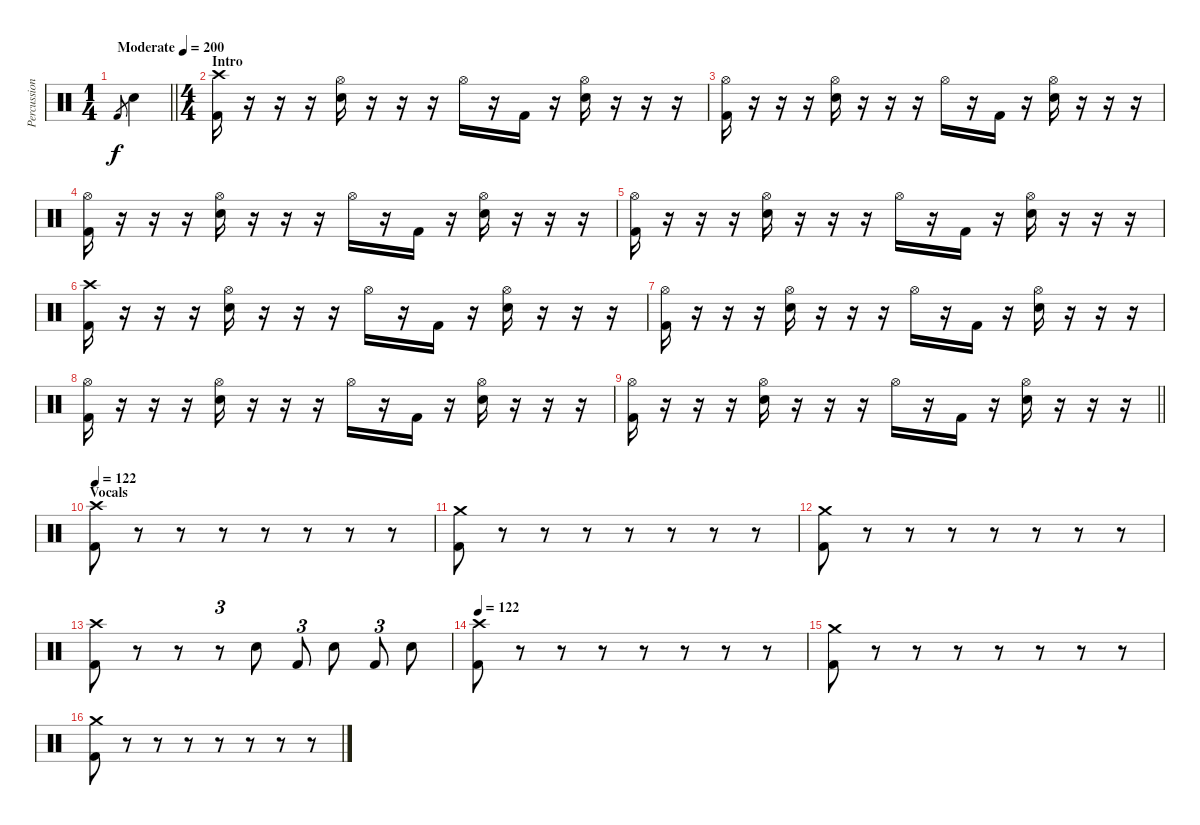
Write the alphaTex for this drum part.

\track ("Percussion" "Percussion") {instrument percussion}
\staff {score}
\articulation defaults
\ts (1 4)
\tempo (200 "Moderate")
\clef neutral
\barLineRight lightlight
\ks c "Kick (hit) 2".8{gr dy f} "Electric Snare (hit)".4
|
\ts (4 4)
\section ("" "Intro")
("Crash high (hit)" "Kick (hit) 2").16 r.16 r.16 r.16 ("Hi-Hat (open)" "Electric Snare (hit)").16 r.16 r.16 r.16 "Hi-Hat (open)".16 r.16 "Kick (hit) 2".16 r.16 ("Hi-Hat (open)" "Electric Snare (hit)").16 r.16 r.16 r.16 |
("Hi-Hat (open)" "Kick (hit) 2").16 r.16 r.16 r.16 ("Hi-Hat (open)" "Electric Snare (hit)").16 r.16 r.16 r.16 "Hi-Hat (open)".16 r.16 "Kick (hit) 2".16 r.16 ("Hi-Hat (open)" "Electric Snare (hit)").16 r.16 r.16 r.16 |
("Hi-Hat (open)" "Kick (hit) 2").16 r.16 r.16 r.16 ("Hi-Hat (open)" "Electric Snare (hit)").16 r.16 r.16 r.16 "Hi-Hat (open)".16 r.16 "Kick (hit) 2".16 r.16 ("Hi-Hat (open)" "Electric Snare (hit)").16 r.16 r.16 r.16 |
("Hi-Hat (open)" "Kick (hit) 2").16 r.16 r.16 r.16 ("Hi-Hat (open)" "Electric Snare (hit)").16 r.16 r.16 r.16 "Hi-Hat (open)".16 r.16 "Kick (hit) 2".16 r.16 ("Hi-Hat (open)" "Electric Snare (hit)").16 r.16 r.16 r.16 |
("Crash high (hit)" "Kick (hit) 2").16 r.16 r.16 r.16 ("Hi-Hat (open)" "Electric Snare (hit)").16 r.16 r.16 r.16 "Hi-Hat (open)".16 r.16 "Kick (hit) 2".16 r.16 ("Hi-Hat (open)" "Electric Snare (hit)").16 r.16 r.16 r.16 |
("Hi-Hat (open)" "Kick (hit) 2").16 r.16 r.16 r.16 ("Hi-Hat (open)" "Electric Snare (hit)").16 r.16 r.16 r.16 "Hi-Hat (open)".16 r.16 "Kick (hit) 2".16 r.16 ("Hi-Hat (open)" "Electric Snare (hit)").16 r.16 r.16 r.16 |
("Hi-Hat (open)" "Kick (hit) 2").16 r.16 r.16 r.16 ("Hi-Hat (open)" "Electric Snare (hit)").16 r.16 r.16 r.16 "Hi-Hat (open)".16 r.16 "Kick (hit) 2".16 r.16 ("Hi-Hat (open)" "Electric Snare (hit)").16 r.16 r.16 r.16 |
\barLineRight lightlight
("Hi-Hat (open)" "Kick (hit) 2").16 r.16 r.16 r.16 ("Hi-Hat (open)" "Electric Snare (hit)").16 r.16 r.16 r.16 "Hi-Hat (open)".16 r.16 "Kick (hit) 2".16 r.16 ("Hi-Hat (open)" "Electric Snare (hit)").16 r.16 r.16 r.16 |
\section ("" "Vocals")
\tempo 122
("Crash high (hit)" "Kick (hit) 2").8 r.8 r.8 r.8 r.8 r.8 r.8 r.8 |
("Crash medium (hit)" "Kick (hit) 2").8 r.8 r.8 r.8 r.8 r.8 r.8 r.8 |
("Crash medium (hit)" "Kick (hit) 2").8 r.8 r.8 r.8 r.8 r.8 r.8 r.8 |
("Crash high (hit)" "Kick (hit) 2").8 r.8 r.8 r.8{tu (3 2)} "Electric Snare (hit)".8 "Kick (hit) 2".8{tu (3 2)} "Electric Snare (hit)".8 "Kick (hit) 2".8{tu (3 2)} "Electric Snare (hit)".8 |
\tempo 122
("Crash high (hit)" "Kick (hit) 2").8 r.8 r.8 r.8 r.8 r.8 r.8 r.8 |
("Crash medium (hit)" "Kick (hit) 2").8 r.8 r.8 r.8 r.8 r.8 r.8 r.8 |
("Crash medium (hit)" "Kick (hit) 2").8 r.8 r.8 r.8 r.8 r.8 r.8 r.8
